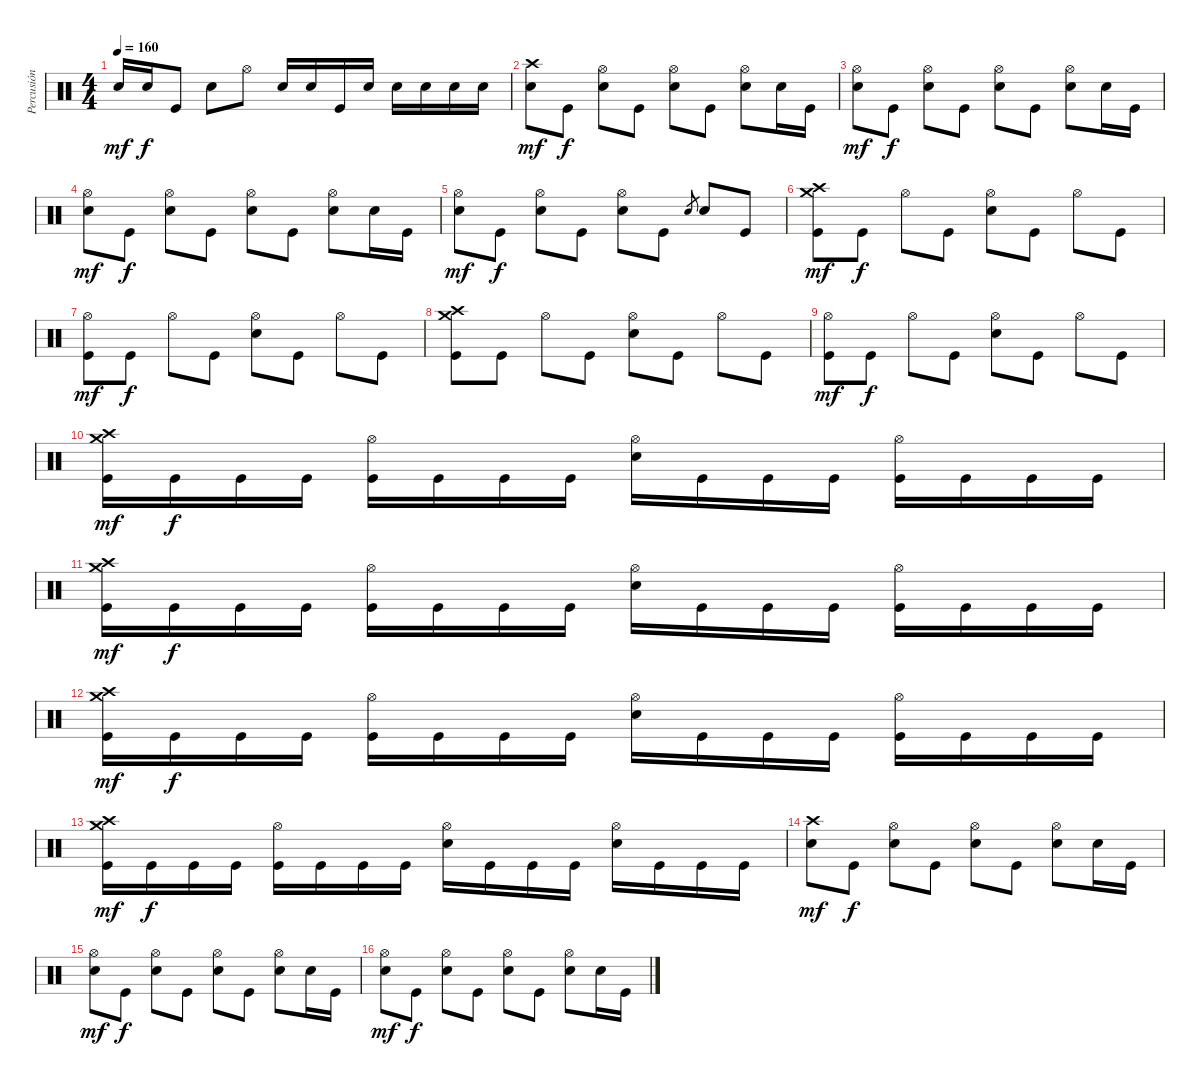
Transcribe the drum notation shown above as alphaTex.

\track ("Percusión" "Percusión") {instrument percussion}
\staff {score}
\articulation defaults
\ts (4 4)
\tempo 160
\clef neutral
\ks c "Electric Snare (hit)".16{dy mf} "Electric Snare (hit)".16{dy f} "Kick (hit)".8 "Electric Snare (hit)".8 "Hi-Hat (open)".8 "Electric Snare (hit)".16 "Electric Snare (hit)".16 "Kick (hit)".16 "Electric Snare (hit)".16 "Electric Snare (hit)".16 "Electric Snare (hit)".16 "Electric Snare (hit)".16 "Electric Snare (hit)".16
|
("Crash high (hit)" "Electric Snare (hit)").8{dy mf} "Kick (hit)".8{dy f} ("Hi-Hat (open)" "Electric Snare (hit)").8 "Kick (hit)".8 ("Hi-Hat (open)" "Electric Snare (hit)").8 "Kick (hit)".8 ("Hi-Hat (open)" "Electric Snare (hit)").8 "Snare (hit)".16 "Kick (hit)".16 |
("Hi-Hat (open)" "Electric Snare (hit)").8{dy mf} "Kick (hit)".8{dy f} ("Hi-Hat (open)" "Electric Snare (hit)").8 "Kick (hit)".8 ("Hi-Hat (open)" "Electric Snare (hit)").8 "Kick (hit)".8 ("Hi-Hat (open)" "Electric Snare (hit)").8 "Snare (hit)".16 "Kick (hit)".16 |
("Hi-Hat (open)" "Electric Snare (hit)").8{dy mf} "Kick (hit)".8{dy f} ("Hi-Hat (open)" "Electric Snare (hit)").8 "Kick (hit)".8 ("Hi-Hat (open)" "Electric Snare (hit)").8 "Kick (hit)".8 ("Hi-Hat (open)" "Electric Snare (hit)").8 "Snare (hit)".16 "Kick (hit)".16 |
("Hi-Hat (open)" "Electric Snare (hit)").8{dy mf} "Kick (hit)".8{dy f} ("Hi-Hat (open)" "Electric Snare (hit)").8 "Kick (hit)".8 ("Hi-Hat (open)" "Electric Snare (hit)").8 "Kick (hit)".8 "Electric Snare (hit)".8{gr} "Electric Snare (hit)".8 "Kick (hit)".8 |
("Crash medium (hit)" "Crash high (hit)" "Kick (hit)").8{dy mf} "Kick (hit)".8{dy f} "Hi-Hat (open)".8 "Kick (hit)".8 ("Hi-Hat (open)" "Electric Snare (hit)").8 "Kick (hit)".8 "Hi-Hat (open)".8 "Kick (hit)".8 |
("Hi-Hat (open)" "Kick (hit)").8{dy mf} "Kick (hit)".8{dy f} "Hi-Hat (open)".8 "Kick (hit)".8 ("Hi-Hat (open)" "Electric Snare (hit)").8 "Kick (hit)".8 "Hi-Hat (open)".8 "Kick (hit)".8 |
("Crash medium (hit)" "Crash high (hit)" "Kick (hit)").8 "Kick (hit)".8 "Hi-Hat (open)".8 "Kick (hit)".8 ("Hi-Hat (open)" "Electric Snare (hit)").8 "Kick (hit)".8 "Hi-Hat (open)".8 "Kick (hit)".8 |
("Hi-Hat (open)" "Kick (hit)").8{dy mf} "Kick (hit)".8{dy f} "Hi-Hat (open)".8 "Kick (hit)".8 ("Hi-Hat (open)" "Electric Snare (hit)").8 "Kick (hit)".8 "Hi-Hat (open)".8 "Kick (hit)".8 |
("Crash medium (hit)" "Crash high (hit)" "Kick (hit)").16{dy mf} "Kick (hit)".16{dy f} "Kick (hit)".16 "Kick (hit)".16 ("Hi-Hat (open)" "Kick (hit)").16 "Kick (hit)".16 "Kick (hit)".16 "Kick (hit)".16 ("Hi-Hat (open)" "Electric Snare (hit)").16 "Kick (hit)".16 "Kick (hit)".16 "Kick (hit)".16 ("Hi-Hat (open)" "Kick (hit)").16 "Kick (hit)".16 "Kick (hit)".16 "Kick (hit)".16 |
("Crash medium (hit)" "Crash high (hit)" "Kick (hit)").16{dy mf} "Kick (hit)".16{dy f} "Kick (hit)".16 "Kick (hit)".16 ("Hi-Hat (open)" "Kick (hit)").16 "Kick (hit)".16 "Kick (hit)".16 "Kick (hit)".16 ("Hi-Hat (open)" "Electric Snare (hit)").16 "Kick (hit)".16 "Kick (hit)".16 "Kick (hit)".16 ("Hi-Hat (open)" "Kick (hit)").16 "Kick (hit)".16 "Kick (hit)".16 "Kick (hit)".16 |
("Crash medium (hit)" "Crash high (hit)" "Kick (hit)").16{dy mf} "Kick (hit)".16{dy f} "Kick (hit)".16 "Kick (hit)".16 ("Hi-Hat (open)" "Kick (hit)").16 "Kick (hit)".16 "Kick (hit)".16 "Kick (hit)".16 ("Hi-Hat (open)" "Electric Snare (hit)").16 "Kick (hit)".16 "Kick (hit)".16 "Kick (hit)".16 ("Hi-Hat (open)" "Kick (hit)").16 "Kick (hit)".16 "Kick (hit)".16 "Kick (hit)".16 |
("Crash medium (hit)" "Crash high (hit)" "Kick (hit)").16{dy mf} "Kick (hit)".16{dy f} "Kick (hit)".16 "Kick (hit)".16 ("Hi-Hat (open)" "Kick (hit)").16 "Kick (hit)".16 "Kick (hit)".16 "Kick (hit)".16 ("Hi-Hat (open)" "Electric Snare (hit)").16 "Kick (hit)".16 "Kick (hit)".16 "Kick (hit)".16 ("Hi-Hat (open)" "Electric Snare (hit)").16 "Kick (hit)".16 "Kick (hit)".16 "Kick (hit)".16 |
("Crash high (hit)" "Electric Snare (hit)").8{dy mf} "Kick (hit)".8{dy f} ("Hi-Hat (open)" "Electric Snare (hit)").8 "Kick (hit)".8 ("Hi-Hat (open)" "Electric Snare (hit)").8 "Kick (hit)".8 ("Hi-Hat (open)" "Electric Snare (hit)").8 "Snare (hit)".16 "Kick (hit)".16 |
("Hi-Hat (open)" "Electric Snare (hit)").8{dy mf} "Kick (hit)".8{dy f} ("Hi-Hat (open)" "Electric Snare (hit)").8 "Kick (hit)".8 ("Hi-Hat (open)" "Electric Snare (hit)").8 "Kick (hit)".8 ("Hi-Hat (open)" "Electric Snare (hit)").8 "Snare (hit)".16 "Kick (hit)".16 |
("Hi-Hat (open)" "Electric Snare (hit)").8{dy mf} "Kick (hit)".8{dy f} ("Hi-Hat (open)" "Electric Snare (hit)").8 "Kick (hit)".8 ("Hi-Hat (open)" "Electric Snare (hit)").8 "Kick (hit)".8 ("Hi-Hat (open)" "Electric Snare (hit)").8 "Snare (hit)".16 "Kick (hit)".16
